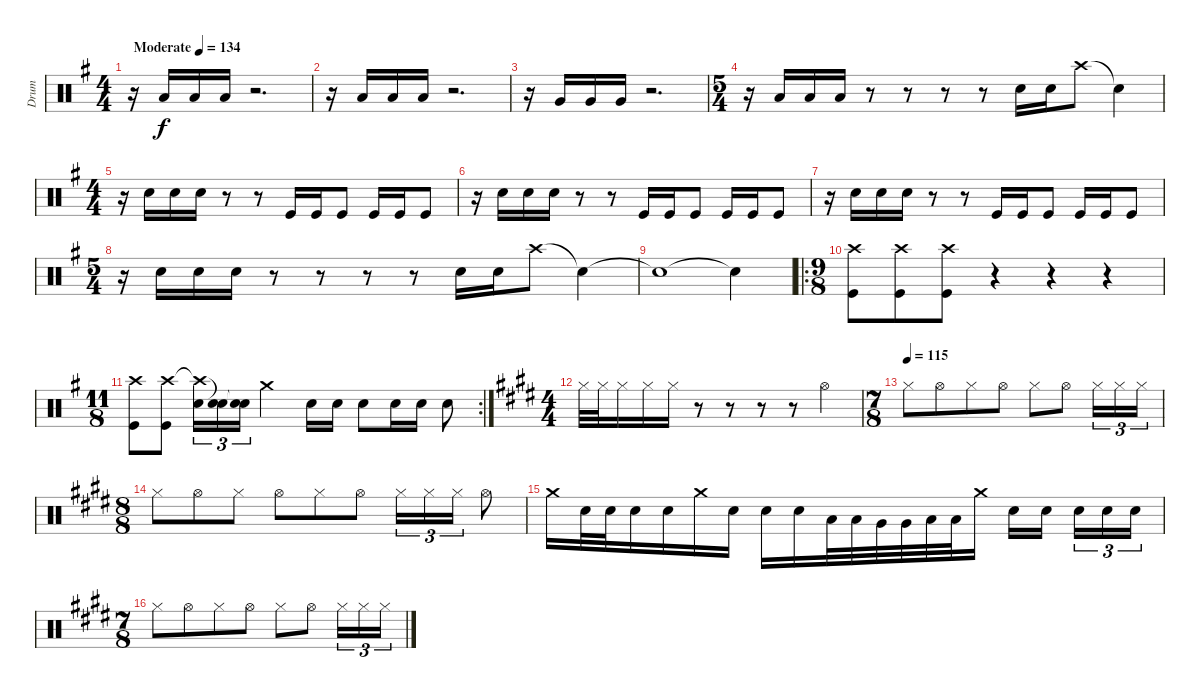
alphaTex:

\track ("Drum" "Drum") {instrument percussion}
\staff {score}
\articulation defaults
\ts (4 4)
\tempo (134 "Moderate")
\clef neutral
\ks g
r.16{dy f} "Low Floor Tom (hit)".16 "Low Floor Tom (hit)".16 "Low Floor Tom (hit)".16 r.2{d} |
r.16 "Low Tom (hit)".16 "Low Tom (hit)".16 "Low Tom (hit)".16 r.2{d} |
r.16 "Very Low Tom (hit)".16 "Very Low Tom (hit)".16 "Very Low Tom (hit)".16 r.2{d} |
\ts (5 4)
r.16 "Low Tom (hit)".16 "Low Tom (hit)".16 "Low Tom (hit)".16 r.8 r.8 r.8 r.8 "Snare (hit) 2".16 "Snare (hit) 2".16 "Crash high (hit)".8 "Snare (hit)"{t}.4 |
\ts (4 4)
r.16 "Snare (hit) 2".16 "Snare (hit) 2".16 "Snare (hit) 2".16 r.8 r.8 "Kick (hit)".16 "Kick (hit)".16 "Kick (hit)".8 "Kick (hit)".16 "Kick (hit)".16 "Kick (hit)".8 |
r.16 "Snare (hit) 2".16 "Snare (hit) 2".16 "Snare (hit) 2".16 r.8 r.8 "Kick (hit)".16 "Kick (hit)".16 "Kick (hit)".8 "Kick (hit)".16 "Kick (hit)".16 "Kick (hit)".8 |
r.16 "Snare (hit) 2".16 "Snare (hit) 2".16 "Snare (hit) 2".16 r.8 r.8 "Kick (hit)".16 "Kick (hit)".16 "Kick (hit)".8 "Kick (hit)".16 "Kick (hit)".16 "Kick (hit)".8 |
\ts (5 4)
r.16 "Snare (hit) 2".16 "Snare (hit) 2".16 "Snare (hit) 2".16 r.8 r.8 r.8 r.8 "Snare (hit) 2".16 "Snare (hit) 2".16 "Crash high (hit)".8 "Snare (hit)"{t}.4 |
"Snare (hit)"{t}.1 "Snare (hit)"{t}.4 |
\ro
\ts (9 8)
("Crash high (hit)" "Kick (hit)").8 ("Crash high (hit)" "Kick (hit)").8 ("Crash high (hit)" "Kick (hit)").8 r.4 r.4 r.4 |
\rc 2
\ts (11 8)
("Crash high (hit)" "Kick (hit)").8 ("Crash high (hit)" "Kick (hit)").8 ("Crash high (hit)"{t} "Snare (hit) 2").16{tu (3 2)} ("Snare (hit)"{t} "Snare (hit) 2").16{tu (3 2)} ("Snare (hit)"{t} "Snare (hit) 2").16{tu (3 2)} "Crash medium (hit)".2 "Snare (hit) 2".16 "Snare (hit) 2".16 "Snare (hit) 2".8 "Snare (hit) 2".16 "Snare (hit) 2".16 "Snare (hit) 2".8 |
\ts (4 4)
\ks e "Hi-Hat (closed)".32 "Hi-Hat (closed)".32 "Hi-Hat (closed)".16 "Hi-Hat (closed)".16 "Hi-Hat (closed)".16
r.8 r.8 r.8 r.8 "Hi-Hat (open)".4 |
\ts (7 8)
\tempo (115)
"Hi-Hat (closed)".8 "Hi-Hat (open)".8 "Hi-Hat (closed)".8 "Hi-Hat (open)".8 "Hi-Hat (closed)".8 "Hi-Hat (open)".8 "Hi-Hat (closed)".16{tu (3 2)} "Hi-Hat (closed)".16{tu (3 2)} "Hi-Hat (closed)".16{tu (3 2)} |
\ts (8 8)
"Hi-Hat (closed)".8 "Hi-Hat (open)".8 "Hi-Hat (closed)".8 "Hi-Hat (open)".8 "Hi-Hat (closed)".8 "Hi-Hat (open)".8 "Hi-Hat (closed)".16{tu (3 2)} "Hi-Hat (closed)".16{tu (3 2)} "Hi-Hat (closed)".16{tu (3 2)} "Hi-Hat (open)".8 |
"Crash medium (hit)".16 "Snare (hit) 2".32 "Snare (hit) 2".32 "Snare (hit) 2".16 "Snare (hit) 2".16 "Crash medium (hit)".16 "Snare (hit) 2".16 "Snare (hit) 2".16 "Snare (hit) 2".16 "Low Tom (hit)".32 "Low Tom (hit)".32 "Very Low Tom (hit)".32 "Very Low Tom (hit)".32 "Low Floor Tom (hit)".32 "Low Floor Tom (hit)".32 "Crash medium (hit)".16 "Snare (hit) 2".16 "Snare (hit) 2".16 "Snare (hit) 2".16{tu (3 2)} "Snare (hit) 2".16{tu (3 2)} "Snare (hit) 2".16{tu (3 2)} |
\ts (7 8)
"Hi-Hat (closed)".8 "Hi-Hat (open)".8 "Hi-Hat (closed)".8 "Hi-Hat (open)".8 "Hi-Hat (closed)".8 "Hi-Hat (open)".8 "Hi-Hat (closed)".16{tu (3 2)} "Hi-Hat (closed)".16{tu (3 2)} "Hi-Hat (closed)".16{tu (3 2)}
